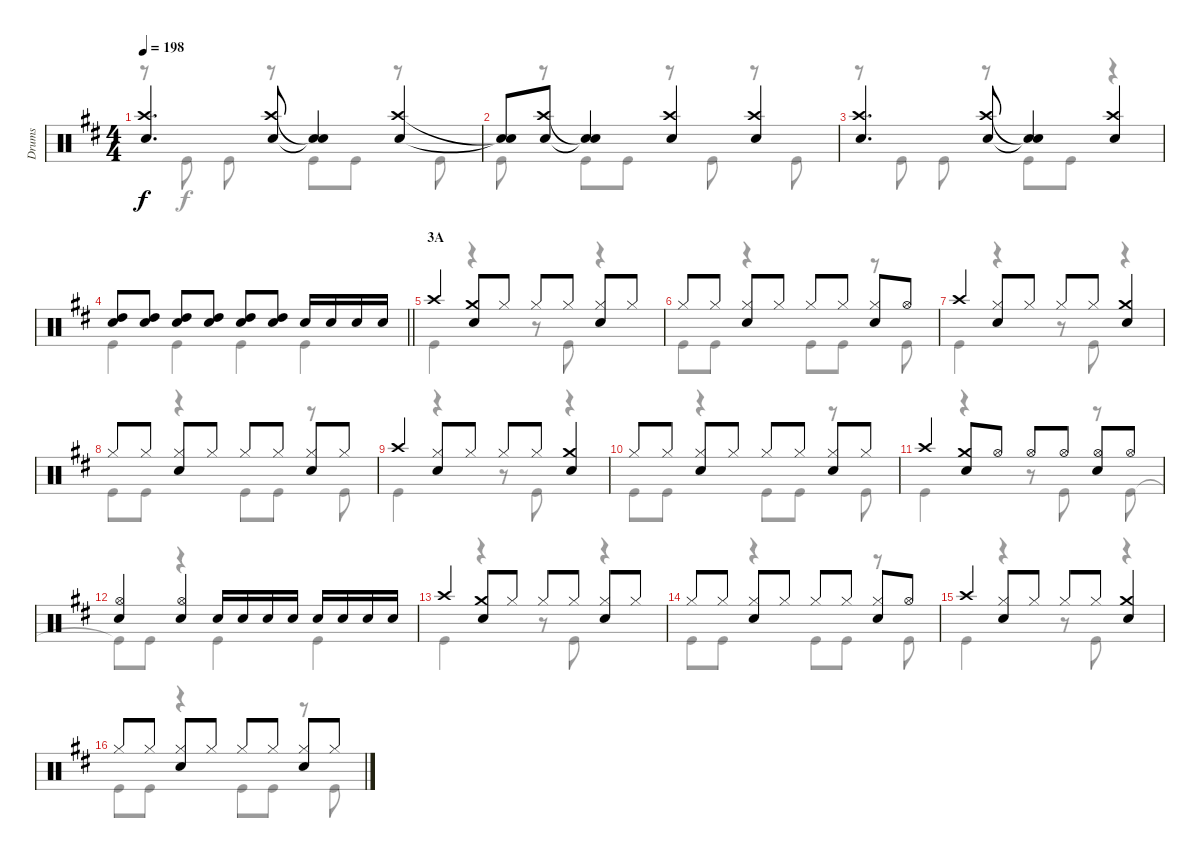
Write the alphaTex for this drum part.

\track ("Drums" "Drums") {instrument percussion}
\staff {score}
\articulation defaults
\voice
\ts (4 4)
\tempo 198
\clef neutral
\ks d
("Crash high (hit)" "Snare (hit) 2").4{d dy f} ("Crash high (hit)" "Snare (hit) 2").8 ("Snare (hit)"{t} "Snare (hit)"{t}).4 ("Crash high (hit)" "Snare (hit) 2").4 |
("Snare (hit)"{t} "Snare (hit)"{t}).8 ("Crash high (hit)" "Snare (hit) 2").8 ("Snare (hit)"{t} "Snare (hit)"{t}).4 ("Crash high (hit)" "Snare (hit) 2").4 ("Crash high (hit)" "Snare (hit) 2").4 |
("Crash high (hit)" "Snare (hit) 2").4{d} ("Crash high (hit)" "Snare (hit) 2").8 ("Snare (hit)"{t} "Snare (hit)"{t}).4 ("Crash high (hit)" "Snare (hit) 2").4 |
\barLineRight lightlight
("Snare (hit) 2" "High Tom (hit)").8 ("Snare (hit) 2" "High Tom (hit)").8 ("Snare (hit) 2" "High Tom (hit)").8 ("Snare (hit) 2" "High Tom (hit)").8 ("Snare (hit) 2" "High Tom (hit)").8 ("Snare (hit) 2" "High Tom (hit)").8 "Snare (hit) 2".16 "Snare (hit) 2".16 "Snare (hit) 2".16 "Snare (hit) 2".16 |
\section ("" "3A")
"Crash high (hit)".4 ("Crash medium (hit)" "Snare (hit) 2").8 "Hi-Hat (closed)".8 "Hi-Hat (closed)".8 "Hi-Hat (closed)".8 ("Hi-Hat (closed)" "Snare (hit) 2").8 "Hi-Hat (closed)".8 |
"Hi-Hat (closed)".8 "Hi-Hat (closed)".8 ("Hi-Hat (closed)" "Snare (hit) 2").8 "Hi-Hat (closed)".8 "Hi-Hat (closed)".8 "Hi-Hat (closed)".8 ("Hi-Hat (closed)" "Snare (hit) 2").8 "Hi-Hat (open)".8 |
"Crash high (hit)".4 ("Hi-Hat (closed)" "Snare (hit) 2").8 "Hi-Hat (closed)".8 "Hi-Hat (closed)".8 "Hi-Hat (closed)".8 ("Crash medium (hit)" "Snare (hit) 2").4 |
"Hi-Hat (closed)".8 "Hi-Hat (closed)".8 ("Hi-Hat (closed)" "Snare (hit) 2").8 "Hi-Hat (closed)".8 "Hi-Hat (closed)".8 "Hi-Hat (closed)".8 ("Hi-Hat (closed)" "Snare (hit) 2").8 "Hi-Hat (closed)".8 |
"Crash high (hit)".4 ("Hi-Hat (closed)" "Snare (hit) 2").8 "Hi-Hat (closed)".8 "Hi-Hat (closed)".8 "Hi-Hat (closed)".8 ("Crash medium (hit)" "Snare (hit) 2").4 |
"Hi-Hat (closed)".8 "Hi-Hat (closed)".8 ("Hi-Hat (closed)" "Snare (hit) 2").8 "Hi-Hat (closed)".8 "Hi-Hat (closed)".8 "Hi-Hat (closed)".8 ("Hi-Hat (closed)" "Snare (hit) 2").8 "Hi-Hat (closed)".8 |
"Crash high (hit)".4 ("Crash medium (hit)" "Snare (hit) 2").8 "Hi-Hat (open)".8 "Hi-Hat (open)".8 "Hi-Hat (open)".8 ("Hi-Hat (open)" "Snare (hit) 2").8 "Hi-Hat (open)".8 |
("Hi-Hat (open)" "Snare (hit) 2").4 ("Hi-Hat (open)" "Snare (hit) 2").4 "Snare (hit) 2".16 "Snare (hit) 2".16 "Snare (hit) 2".16 "Snare (hit) 2".16 "Snare (hit) 2".16 "Snare (hit) 2".16 "Snare (hit) 2".16 "Snare (hit) 2".16 |
"Crash high (hit)".4 ("Crash medium (hit)" "Snare (hit) 2").8 "Hi-Hat (closed)".8 "Hi-Hat (closed)".8 "Hi-Hat (closed)".8 ("Hi-Hat (closed)" "Snare (hit) 2").8 "Hi-Hat (closed)".8 |
"Hi-Hat (closed)".8 "Hi-Hat (closed)".8 ("Hi-Hat (closed)" "Snare (hit) 2").8 "Hi-Hat (closed)".8 "Hi-Hat (closed)".8 "Hi-Hat (closed)".8 ("Hi-Hat (closed)" "Snare (hit) 2").8 "Hi-Hat (open)".8 |
"Crash high (hit)".4 ("Hi-Hat (closed)" "Snare (hit) 2").8 "Hi-Hat (closed)".8 "Hi-Hat (closed)".8 "Hi-Hat (closed)".8 ("Crash medium (hit)" "Snare (hit) 2").4 |
"Hi-Hat (closed)".8 "Hi-Hat (closed)".8 ("Hi-Hat (closed)" "Snare (hit) 2").8 "Hi-Hat (closed)".8 "Hi-Hat (closed)".8 "Hi-Hat (closed)".8 ("Hi-Hat (closed)" "Snare (hit) 2").8 "Hi-Hat (closed)".8
\voice
\clef neutral
\ottava regular
\simile none
\ks d
r.8{dy f} "Kick (hit)".8 "Kick (hit)".8 r.8 "Kick (hit)".8 "Kick (hit)".8 r.8 "Kick (hit)".8 |
"Kick (hit)".8 r.8 "Kick (hit)".8 "Kick (hit)".8 r.8 "Kick (hit)".8 r.8 "Kick (hit)".8 |
r.8 "Kick (hit)".8 "Kick (hit)".8 r.8 "Kick (hit)".8 "Kick (hit)".8 r.4 |
\barLineRight lightlight "Kick (hit)".4 "Kick (hit)".4 "Kick (hit)".4 "Kick (hit)".4
|
"Kick (hit)".4 r.4 r.8 "Kick (hit)".8 r.4 |
"Kick (hit)".8 "Kick (hit)".8 r.4 "Kick (hit)".8 "Kick (hit)".8 r.8 "Kick (hit)".8 |
"Kick (hit)".4 r.4 r.8 "Kick (hit)".8 r.4 |
"Kick (hit)".8 "Kick (hit)".8 r.4 "Kick (hit)".8 "Kick (hit)".8 r.8 "Kick (hit)".8 |
"Kick (hit)".4 r.4 r.8 "Kick (hit)".8 r.4 |
"Kick (hit)".8 "Kick (hit)".8 r.4 "Kick (hit)".8 "Kick (hit)".8 r.8 "Kick (hit)".8 |
"Kick (hit)".4 r.4 r.8 "Kick (hit)".8 r.8 "Kick (hit)".8 |
"Kick (hit)"{t}.8 "Kick (hit)".8 r.4 "Kick (hit)".4 "Kick (hit)".4 |
"Kick (hit)".4 r.4 r.8 "Kick (hit)".8 r.4 |
"Kick (hit)".8 "Kick (hit)".8 r.4 "Kick (hit)".8 "Kick (hit)".8 r.8 "Kick (hit)".8 |
"Kick (hit)".4 r.4 r.8 "Kick (hit)".8 r.4 |
"Kick (hit)".8 "Kick (hit)".8 r.4 "Kick (hit)".8 "Kick (hit)".8 r.8 "Kick (hit)".8
